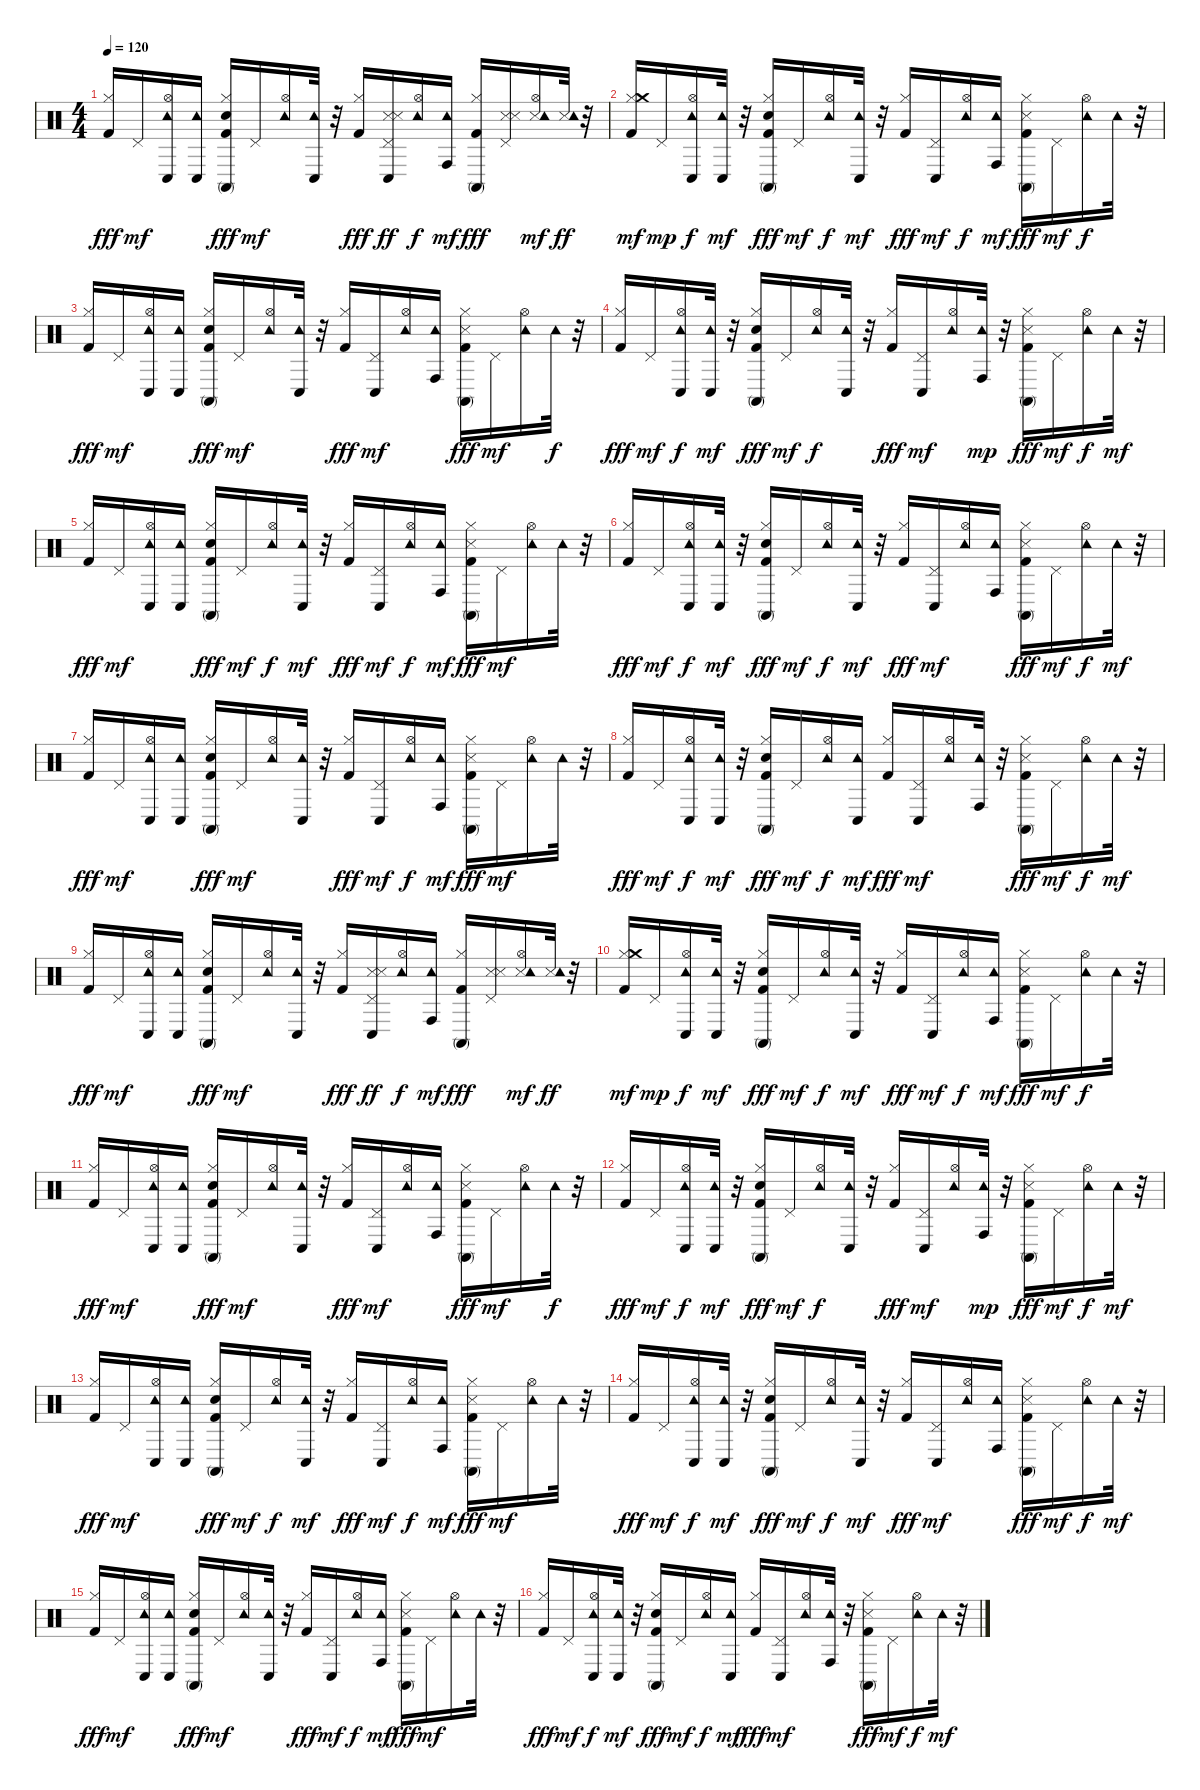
\track "" {instrument percussion}
\staff {score}
\articulation defaults
\ts (4 4)
\tempo 120
\clef neutral
\ks c
("Kick (hit) 2" "Hi-Hat (closed)").16{dy fff} "Pedal Hi-Hat (hit)".16{dy mf} ("Conga low (hit)" "Hi-Hat (open)" "Tambourine (hit)").16 ("Conga low (hit)" "Tambourine (hit)").16 ("Conga high (mute)" "Kick (hit) 2" "Hi-Hat (closed)" "Snare (hit) 2").16{dy fff} "Pedal Hi-Hat (hit)".16{dy mf} ("Hi-Hat (open)" "Tambourine (hit)").16 ("Conga low (hit)" "Tambourine (hit)").32 r.32 ("Kick (hit) 2" "Hi-Hat (closed)").16{dy fff} ("Conga low (hit)" "Pedal Hi-Hat (hit)" "Snare (side stick) 3" "Snare (side stick) 3").16{dy ff} ("Hi-Hat (open)" "Tambourine (hit)").16{dy f} ("Conga high (hit)" "Tambourine (hit)").16{dy mf} ("Hi-Hat (closed)" "Kick (hit) 2" "Conga high (mute)").16{dy fff} ("Pedal Hi-Hat (hit)" "Snare (side stick) 3" "Snare (side stick) 3").16 ("Hi-Hat (open)" "Snare (side stick) 3" "Tambourine (hit)").16{dy mf} ("Snare (side stick) 3" "Tambourine (hit)").32{dy ff} r.32 |
("Hi-Hat (closed)" "Kick (hit) 2" "Crash medium (hit)").16{dy mf} "Pedal Hi-Hat (hit)".16{dy mp} ("Hi-Hat (open)" "Conga low (hit)" "Tambourine (hit)").16{dy f} ("Conga low (hit)" "Tambourine (hit)").32{dy mf} r.32 ("Conga high (mute)" "Kick (hit) 2" "Hi-Hat (closed)" "Snare (hit) 2").16{dy fff} "Pedal Hi-Hat (hit)".16{dy mf} ("Hi-Hat (open)" "Tambourine (hit)").16{dy f} ("Conga low (hit)" "Tambourine (hit)").32{dy mf} r.32 ("Kick (hit) 2" "Hi-Hat (closed)").16{dy fff} ("Conga low (hit)" "Pedal Hi-Hat (hit)").16{dy mf} ("Hi-Hat (open)" "Tambourine (hit)").16{dy f} ("Conga high (hit)" "Tambourine (hit)").16{dy mf} ("Conga high (mute)" "Kick (hit) 2" "Hi-Hat (closed)" "Snare (side stick) 3").16{dy fff} "Pedal Hi-Hat (hit)".16{dy mf} ("Hi-Hat (open)" "Tambourine (hit)").16{dy f} "Tambourine (hit)".32 r.32 |
("Hi-Hat (closed)" "Kick (hit) 2").16{dy fff} "Pedal Hi-Hat (hit)".16{dy mf} ("Hi-Hat (open)" "Conga low (hit)" "Tambourine (hit)").16 ("Conga low (hit)" "Tambourine (hit)").16 ("Hi-Hat (closed)" "Conga high (mute)" "Kick (hit) 2" "Snare (hit) 2").16{dy fff} "Pedal Hi-Hat (hit)".16{dy mf} ("Hi-Hat (open)" "Tambourine (hit)").16 ("Conga low (hit)" "Tambourine (hit)").32 r.32 ("Hi-Hat (closed)" "Kick (hit) 2").16{dy fff} ("Conga low (hit)" "Pedal Hi-Hat (hit)").16{dy mf} ("Hi-Hat (open)" "Tambourine (hit)").16 ("Conga high (hit)" "Tambourine (hit)").16 ("Hi-Hat (closed)" "Conga high (mute)" "Kick (hit) 2" "Snare (side stick) 3").16{dy fff} "Pedal Hi-Hat (hit)".16{dy mf} ("Hi-Hat (open)" "Tambourine (hit)").16 "Tambourine (hit)".32{dy f} r.32 |
("Hi-Hat (closed)" "Kick (hit) 2").16{dy fff} "Pedal Hi-Hat (hit)".16{dy mf} ("Conga low (hit)" "Hi-Hat (open)" "Tambourine (hit)").16{dy f} ("Conga low (hit)" "Tambourine (hit)").32{dy mf} r.32 ("Conga high (mute)" "Kick (hit) 2" "Hi-Hat (closed)" "Snare (hit) 2").16{dy fff} "Pedal Hi-Hat (hit)".16{dy mf} ("Hi-Hat (open)" "Tambourine (hit)").16{dy f} ("Conga low (hit)" "Tambourine (hit)").32 r.32 ("Hi-Hat (closed)" "Kick (hit) 2").16{dy fff} ("Conga low (hit)" "Pedal Hi-Hat (hit)").16{dy mf} ("Hi-Hat (open)" "Tambourine (hit)").16 ("Conga high (hit)" "Tambourine (hit)").32{dy mp} r.32 ("Hi-Hat (closed)" "Conga high (mute)" "Kick (hit) 2" "Snare (side stick) 3").16{dy fff} "Pedal Hi-Hat (hit)".16{dy mf} ("Hi-Hat (open)" "Tambourine (hit)").16{dy f} "Tambourine (hit)".32{dy mf} r.32 |
("Kick (hit) 2" "Hi-Hat (closed)").16{dy fff} "Pedal Hi-Hat (hit)".16{dy mf} ("Conga low (hit)" "Hi-Hat (open)" "Tambourine (hit)").16 ("Conga low (hit)" "Tambourine (hit)").16 ("Conga high (mute)" "Kick (hit) 2" "Hi-Hat (closed)" "Snare (hit) 2").16{dy fff} "Pedal Hi-Hat (hit)".16{dy mf} ("Hi-Hat (open)" "Tambourine (hit)").16{dy f} ("Conga low (hit)" "Tambourine (hit)").32{dy mf} r.32 ("Hi-Hat (closed)" "Kick (hit) 2").16{dy fff} ("Conga low (hit)" "Pedal Hi-Hat (hit)").16{dy mf} ("Hi-Hat (open)" "Tambourine (hit)").16{dy f} ("Conga high (hit)" "Tambourine (hit)").16{dy mf} ("Conga high (mute)" "Kick (hit) 2" "Hi-Hat (closed)" "Snare (side stick) 3").16{dy fff} "Pedal Hi-Hat (hit)".16{dy mf} ("Hi-Hat (open)" "Tambourine (hit)").16 "Tambourine (hit)".32 r.32 |
("Kick (hit) 2" "Hi-Hat (closed)").16{dy fff} "Pedal Hi-Hat (hit)".16{dy mf} ("Conga low (hit)" "Hi-Hat (open)" "Tambourine (hit)").16{dy f} ("Conga low (hit)" "Tambourine (hit)").32{dy mf} r.32 ("Conga high (mute)" "Kick (hit) 2" "Hi-Hat (closed)" "Snare (hit) 2").16{dy fff} "Pedal Hi-Hat (hit)".16{dy mf} ("Hi-Hat (open)" "Tambourine (hit)").16{dy f} ("Conga low (hit)" "Tambourine (hit)").32{dy mf} r.32 ("Kick (hit) 2" "Hi-Hat (closed)").16{dy fff} ("Conga low (hit)" "Pedal Hi-Hat (hit)").16{dy mf} ("Hi-Hat (open)" "Tambourine (hit)").16 ("Conga high (hit)" "Tambourine (hit)").16 ("Conga high (mute)" "Kick (hit) 2" "Hi-Hat (closed)" "Snare (side stick) 3").16{dy fff} "Pedal Hi-Hat (hit)".16{dy mf} ("Hi-Hat (open)" "Tambourine (hit)").16{dy f} "Tambourine (hit)".32{dy mf} r.32 |
("Kick (hit) 2" "Hi-Hat (closed)").16{dy fff} "Pedal Hi-Hat (hit)".16{dy mf} ("Conga low (hit)" "Hi-Hat (open)" "Tambourine (hit)").16 ("Conga low (hit)" "Tambourine (hit)").16 ("Conga high (mute)" "Kick (hit) 2" "Hi-Hat (closed)" "Snare (hit) 2").16{dy fff} "Pedal Hi-Hat (hit)".16{dy mf} ("Hi-Hat (open)" "Tambourine (hit)").16 ("Conga low (hit)" "Tambourine (hit)").32 r.32 ("Kick (hit) 2" "Hi-Hat (closed)").16{dy fff} ("Conga low (hit)" "Pedal Hi-Hat (hit)").16{dy mf} ("Hi-Hat (open)" "Tambourine (hit)").16{dy f} ("Conga high (hit)" "Tambourine (hit)").16{dy mf} ("Hi-Hat (closed)" "Kick (hit) 2" "Conga high (mute)" "Snare (side stick) 3").16{dy fff} "Pedal Hi-Hat (hit)".16{dy mf} ("Hi-Hat (open)" "Tambourine (hit)").16 "Tambourine (hit)".32 r.32 |
("Hi-Hat (closed)" "Kick (hit) 2").16{dy fff} "Pedal Hi-Hat (hit)".16{dy mf} ("Conga low (hit)" "Hi-Hat (open)" "Tambourine (hit)").16{dy f} ("Conga low (hit)" "Tambourine (hit)").32{dy mf} r.32 ("Conga high (mute)" "Kick (hit) 2" "Hi-Hat (closed)" "Snare (hit) 2").16{dy fff} "Pedal Hi-Hat (hit)".16{dy mf} ("Hi-Hat (open)" "Tambourine (hit)").16{dy f} ("Conga low (hit)" "Tambourine (hit)").16{dy mf} ("Kick (hit) 2" "Hi-Hat (closed)").16{dy fff} ("Conga low (hit)" "Pedal Hi-Hat (hit)").16{dy mf} ("Hi-Hat (open)" "Tambourine (hit)").16 ("Conga high (hit)" "Tambourine (hit)").32 r.32 ("Hi-Hat (closed)" "Conga high (mute)" "Kick (hit) 2" "Snare (side stick) 3").16{dy fff} "Pedal Hi-Hat (hit)".16{dy mf} ("Hi-Hat (open)" "Tambourine (hit)").16{dy f} "Tambourine (hit)".32{dy mf} r.32 |
("Kick (hit) 2" "Hi-Hat (closed)").16{dy fff} "Pedal Hi-Hat (hit)".16{dy mf} ("Conga low (hit)" "Hi-Hat (open)" "Tambourine (hit)").16 ("Conga low (hit)" "Tambourine (hit)").16 ("Conga high (mute)" "Kick (hit) 2" "Hi-Hat (closed)" "Snare (hit) 2").16{dy fff} "Pedal Hi-Hat (hit)".16{dy mf} ("Hi-Hat (open)" "Tambourine (hit)").16 ("Conga low (hit)" "Tambourine (hit)").32 r.32 ("Kick (hit) 2" "Hi-Hat (closed)").16{dy fff} ("Conga low (hit)" "Pedal Hi-Hat (hit)" "Snare (side stick) 3" "Snare (side stick) 3").16{dy ff} ("Hi-Hat (open)" "Tambourine (hit)").16{dy f} ("Conga high (hit)" "Tambourine (hit)").16{dy mf} ("Hi-Hat (closed)" "Kick (hit) 2" "Conga high (mute)").16{dy fff} ("Pedal Hi-Hat (hit)" "Snare (side stick) 3" "Snare (side stick) 3").16 ("Hi-Hat (open)" "Snare (side stick) 3" "Tambourine (hit)").16{dy mf} ("Snare (side stick) 3" "Tambourine (hit)").32{dy ff} r.32 |
("Hi-Hat (closed)" "Kick (hit) 2" "Crash medium (hit)").16{dy mf} "Pedal Hi-Hat (hit)".16{dy mp} ("Hi-Hat (open)" "Conga low (hit)" "Tambourine (hit)").16{dy f} ("Conga low (hit)" "Tambourine (hit)").32{dy mf} r.32 ("Conga high (mute)" "Kick (hit) 2" "Hi-Hat (closed)" "Snare (hit) 2").16{dy fff} "Pedal Hi-Hat (hit)".16{dy mf} ("Hi-Hat (open)" "Tambourine (hit)").16{dy f} ("Conga low (hit)" "Tambourine (hit)").32{dy mf} r.32 ("Kick (hit) 2" "Hi-Hat (closed)").16{dy fff} ("Conga low (hit)" "Pedal Hi-Hat (hit)").16{dy mf} ("Hi-Hat (open)" "Tambourine (hit)").16{dy f} ("Conga high (hit)" "Tambourine (hit)").16{dy mf} ("Conga high (mute)" "Kick (hit) 2" "Hi-Hat (closed)" "Snare (side stick) 3").16{dy fff} "Pedal Hi-Hat (hit)".16{dy mf} ("Hi-Hat (open)" "Tambourine (hit)").16{dy f} "Tambourine (hit)".32 r.32 |
("Hi-Hat (closed)" "Kick (hit) 2").16{dy fff} "Pedal Hi-Hat (hit)".16{dy mf} ("Hi-Hat (open)" "Conga low (hit)" "Tambourine (hit)").16 ("Conga low (hit)" "Tambourine (hit)").16 ("Hi-Hat (closed)" "Conga high (mute)" "Kick (hit) 2" "Snare (hit) 2").16{dy fff} "Pedal Hi-Hat (hit)".16{dy mf} ("Hi-Hat (open)" "Tambourine (hit)").16 ("Conga low (hit)" "Tambourine (hit)").32 r.32 ("Hi-Hat (closed)" "Kick (hit) 2").16{dy fff} ("Conga low (hit)" "Pedal Hi-Hat (hit)").16{dy mf} ("Hi-Hat (open)" "Tambourine (hit)").16 ("Conga high (hit)" "Tambourine (hit)").16 ("Hi-Hat (closed)" "Conga high (mute)" "Kick (hit) 2" "Snare (side stick) 3").16{dy fff} "Pedal Hi-Hat (hit)".16{dy mf} ("Hi-Hat (open)" "Tambourine (hit)").16 "Tambourine (hit)".32{dy f} r.32 |
("Hi-Hat (closed)" "Kick (hit) 2").16{dy fff} "Pedal Hi-Hat (hit)".16{dy mf} ("Conga low (hit)" "Hi-Hat (open)" "Tambourine (hit)").16{dy f} ("Conga low (hit)" "Tambourine (hit)").32{dy mf} r.32 ("Conga high (mute)" "Kick (hit) 2" "Hi-Hat (closed)" "Snare (hit) 2").16{dy fff} "Pedal Hi-Hat (hit)".16{dy mf} ("Hi-Hat (open)" "Tambourine (hit)").16{dy f} ("Conga low (hit)" "Tambourine (hit)").32 r.32 ("Hi-Hat (closed)" "Kick (hit) 2").16{dy fff} ("Conga low (hit)" "Pedal Hi-Hat (hit)").16{dy mf} ("Hi-Hat (open)" "Tambourine (hit)").16 ("Conga high (hit)" "Tambourine (hit)").32{dy mp} r.32 ("Hi-Hat (closed)" "Conga high (mute)" "Kick (hit) 2" "Snare (side stick) 3").16{dy fff} "Pedal Hi-Hat (hit)".16{dy mf} ("Hi-Hat (open)" "Tambourine (hit)").16{dy f} "Tambourine (hit)".32{dy mf} r.32 |
("Kick (hit) 2" "Hi-Hat (closed)").16{dy fff} "Pedal Hi-Hat (hit)".16{dy mf} ("Conga low (hit)" "Hi-Hat (open)" "Tambourine (hit)").16 ("Conga low (hit)" "Tambourine (hit)").16 ("Conga high (mute)" "Kick (hit) 2" "Hi-Hat (closed)" "Snare (hit) 2").16{dy fff} "Pedal Hi-Hat (hit)".16{dy mf} ("Hi-Hat (open)" "Tambourine (hit)").16{dy f} ("Conga low (hit)" "Tambourine (hit)").32{dy mf} r.32 ("Hi-Hat (closed)" "Kick (hit) 2").16{dy fff} ("Conga low (hit)" "Pedal Hi-Hat (hit)").16{dy mf} ("Hi-Hat (open)" "Tambourine (hit)").16{dy f} ("Conga high (hit)" "Tambourine (hit)").16{dy mf} ("Conga high (mute)" "Kick (hit) 2" "Hi-Hat (closed)" "Snare (side stick) 3").16{dy fff} "Pedal Hi-Hat (hit)".16{dy mf} ("Hi-Hat (open)" "Tambourine (hit)").16 "Tambourine (hit)".32 r.32 |
("Kick (hit) 2" "Hi-Hat (closed)").16{dy fff} "Pedal Hi-Hat (hit)".16{dy mf} ("Conga low (hit)" "Hi-Hat (open)" "Tambourine (hit)").16{dy f} ("Conga low (hit)" "Tambourine (hit)").32{dy mf} r.32 ("Conga high (mute)" "Kick (hit) 2" "Hi-Hat (closed)" "Snare (hit) 2").16{dy fff} "Pedal Hi-Hat (hit)".16{dy mf} ("Hi-Hat (open)" "Tambourine (hit)").16{dy f} ("Conga low (hit)" "Tambourine (hit)").32{dy mf} r.32 ("Kick (hit) 2" "Hi-Hat (closed)").16{dy fff} ("Conga low (hit)" "Pedal Hi-Hat (hit)").16{dy mf} ("Hi-Hat (open)" "Tambourine (hit)").16 ("Conga high (hit)" "Tambourine (hit)").16 ("Conga high (mute)" "Kick (hit) 2" "Hi-Hat (closed)" "Snare (side stick) 3").16{dy fff} "Pedal Hi-Hat (hit)".16{dy mf} ("Hi-Hat (open)" "Tambourine (hit)").16{dy f} "Tambourine (hit)".32{dy mf} r.32 |
("Kick (hit) 2" "Hi-Hat (closed)").16{dy fff} "Pedal Hi-Hat (hit)".16{dy mf} ("Conga low (hit)" "Hi-Hat (open)" "Tambourine (hit)").16 ("Conga low (hit)" "Tambourine (hit)").16 ("Conga high (mute)" "Kick (hit) 2" "Hi-Hat (closed)" "Snare (hit) 2").16{dy fff} "Pedal Hi-Hat (hit)".16{dy mf} ("Hi-Hat (open)" "Tambourine (hit)").16 ("Conga low (hit)" "Tambourine (hit)").32 r.32 ("Kick (hit) 2" "Hi-Hat (closed)").16{dy fff} ("Conga low (hit)" "Pedal Hi-Hat (hit)").16{dy mf} ("Hi-Hat (open)" "Tambourine (hit)").16{dy f} ("Conga high (hit)" "Tambourine (hit)").16{dy mf} ("Hi-Hat (closed)" "Kick (hit) 2" "Conga high (mute)" "Snare (side stick) 3").16{dy fff} "Pedal Hi-Hat (hit)".16{dy mf} ("Hi-Hat (open)" "Tambourine (hit)").16 "Tambourine (hit)".32 r.32 |
("Hi-Hat (closed)" "Kick (hit) 2").16{dy fff} "Pedal Hi-Hat (hit)".16{dy mf} ("Conga low (hit)" "Hi-Hat (open)" "Tambourine (hit)").16{dy f} ("Conga low (hit)" "Tambourine (hit)").32{dy mf} r.32 ("Conga high (mute)" "Kick (hit) 2" "Hi-Hat (closed)" "Snare (hit) 2").16{dy fff} "Pedal Hi-Hat (hit)".16{dy mf} ("Hi-Hat (open)" "Tambourine (hit)").16{dy f} ("Conga low (hit)" "Tambourine (hit)").16{dy mf} ("Kick (hit) 2" "Hi-Hat (closed)").16{dy fff} ("Conga low (hit)" "Pedal Hi-Hat (hit)").16{dy mf} ("Hi-Hat (open)" "Tambourine (hit)").16 ("Conga high (hit)" "Tambourine (hit)").32 r.32 ("Hi-Hat (closed)" "Conga high (mute)" "Kick (hit) 2" "Snare (side stick) 3").16{dy fff} "Pedal Hi-Hat (hit)".16{dy mf} ("Hi-Hat (open)" "Tambourine (hit)").16{dy f} "Tambourine (hit)".32{dy mf} r.32
